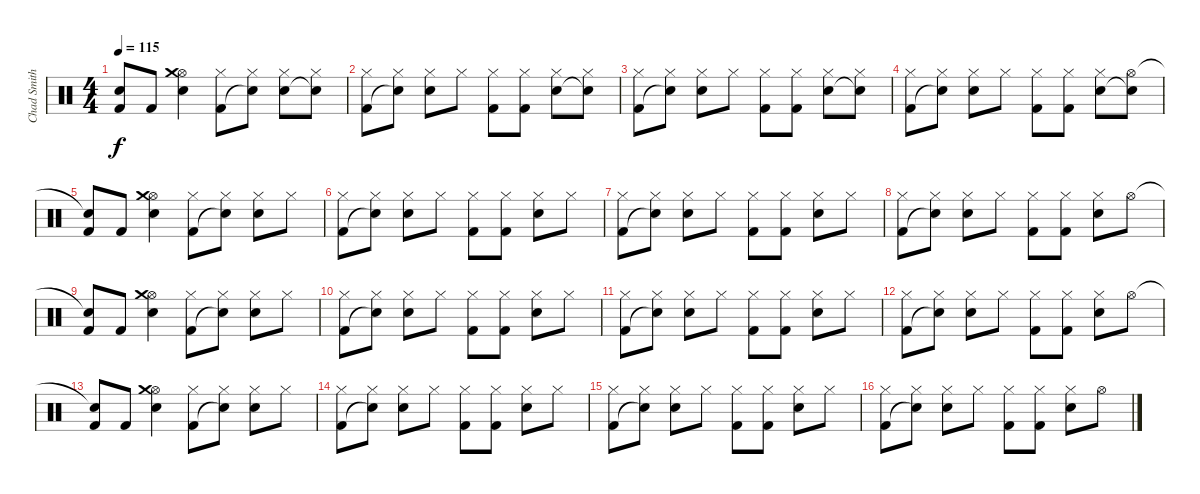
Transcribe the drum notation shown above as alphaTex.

\track ("Chad Smith" "Chad Smith") {instrument percussion}
\staff {score}
\articulation defaults
\ts (4 4)
\tempo 115
\clef neutral
\ks c
("Snare (hit)"{t} "Kick (hit) 2").8{dy f} "Kick (hit) 2".8 ("Hi-Hat (open)" "Crash medium (hit)" "Electric Snare (hit)").4 ("Hi-Hat (closed)" "Kick (hit) 2").8 ("Hi-Hat (closed)" "Snare (hit)"{t}).8 ("Hi-Hat (closed)" "Electric Snare (hit)").8 ("Hi-Hat (closed)" "Snare (hit)"{t}).8 |
("Hi-Hat (closed)" "Kick (hit) 2").8 ("Hi-Hat (closed)" "Snare (hit)"{t}).8 ("Hi-Hat (closed)" "Electric Snare (hit)").8 "Hi-Hat (closed)".8 ("Hi-Hat (closed)" "Kick (hit) 2").8 ("Hi-Hat (closed)" "Kick (hit) 2").8 ("Hi-Hat (closed)" "Electric Snare (hit)").8 ("Hi-Hat (closed)" "Snare (hit)"{t}).8 |
("Hi-Hat (closed)" "Kick (hit) 2").8 ("Hi-Hat (closed)" "Snare (hit)"{t}).8 ("Hi-Hat (closed)" "Electric Snare (hit)").8 "Hi-Hat (closed)".8 ("Hi-Hat (closed)" "Kick (hit) 2").8 ("Hi-Hat (closed)" "Kick (hit) 2").8 ("Hi-Hat (closed)" "Electric Snare (hit)").8 ("Hi-Hat (closed)" "Snare (hit)"{t}).8 |
("Hi-Hat (closed)" "Kick (hit) 2").8 ("Hi-Hat (closed)" "Snare (hit)"{t}).8 ("Hi-Hat (closed)" "Electric Snare (hit)").8 "Hi-Hat (closed)".8 ("Hi-Hat (closed)" "Kick (hit) 2").8 ("Hi-Hat (closed)" "Kick (hit) 2").8 ("Hi-Hat (closed)" "Electric Snare (hit)").8 ("Hi-Hat (open)" "Snare (hit)"{t}).8 |
("Snare (hit)"{t} "Kick (hit) 2").8 "Kick (hit) 2".8 ("Hi-Hat (open)" "Crash medium (hit)" "Electric Snare (hit)").4 ("Hi-Hat (closed)" "Kick (hit) 2").8 ("Hi-Hat (closed)" "Snare (hit)"{t}).8 ("Hi-Hat (closed)" "Electric Snare (hit)").8 "Hi-Hat (closed)".8 |
("Hi-Hat (closed)" "Kick (hit) 2").8 ("Hi-Hat (closed)" "Snare (hit)"{t}).8 ("Hi-Hat (closed)" "Electric Snare (hit)").8 "Hi-Hat (closed)".8 ("Hi-Hat (closed)" "Kick (hit) 2").8 ("Hi-Hat (closed)" "Kick (hit) 2").8 ("Hi-Hat (closed)" "Electric Snare (hit)").8 "Hi-Hat (closed)".8 |
("Hi-Hat (closed)" "Kick (hit) 2").8 ("Hi-Hat (closed)" "Snare (hit)"{t}).8 ("Hi-Hat (closed)" "Electric Snare (hit)").8 "Hi-Hat (closed)".8 ("Hi-Hat (closed)" "Kick (hit) 2").8 ("Hi-Hat (closed)" "Kick (hit) 2").8 ("Hi-Hat (closed)" "Electric Snare (hit)").8 "Hi-Hat (closed)".8 |
("Hi-Hat (closed)" "Kick (hit) 2").8 ("Hi-Hat (closed)" "Snare (hit)"{t}).8 ("Hi-Hat (closed)" "Electric Snare (hit)").8 "Hi-Hat (closed)".8 ("Hi-Hat (closed)" "Kick (hit) 2").8 ("Hi-Hat (closed)" "Kick (hit) 2").8 ("Hi-Hat (closed)" "Electric Snare (hit)").8 "Hi-Hat (open)".8 |
("Snare (hit)"{t} "Kick (hit) 2").8 "Kick (hit) 2".8 ("Hi-Hat (open)" "Crash medium (hit)" "Electric Snare (hit)").4 ("Hi-Hat (closed)" "Kick (hit) 2").8 ("Hi-Hat (closed)" "Snare (hit)"{t}).8 ("Hi-Hat (closed)" "Electric Snare (hit)").8 "Hi-Hat (closed)".8 |
("Hi-Hat (closed)" "Kick (hit) 2").8 ("Hi-Hat (closed)" "Snare (hit)"{t}).8 ("Hi-Hat (closed)" "Electric Snare (hit)").8 "Hi-Hat (closed)".8 ("Hi-Hat (closed)" "Kick (hit) 2").8 ("Hi-Hat (closed)" "Kick (hit) 2").8 ("Hi-Hat (closed)" "Electric Snare (hit)").8 "Hi-Hat (closed)".8 |
("Hi-Hat (closed)" "Kick (hit) 2").8 ("Hi-Hat (closed)" "Snare (hit)"{t}).8 ("Hi-Hat (closed)" "Electric Snare (hit)").8 "Hi-Hat (closed)".8 ("Hi-Hat (closed)" "Kick (hit) 2").8 ("Hi-Hat (closed)" "Kick (hit) 2").8 ("Hi-Hat (closed)" "Electric Snare (hit)").8 "Hi-Hat (closed)".8 |
("Hi-Hat (closed)" "Kick (hit) 2").8 ("Hi-Hat (closed)" "Snare (hit)"{t}).8 ("Hi-Hat (closed)" "Electric Snare (hit)").8 "Hi-Hat (closed)".8 ("Hi-Hat (closed)" "Kick (hit) 2").8 ("Hi-Hat (closed)" "Kick (hit) 2").8 ("Hi-Hat (closed)" "Electric Snare (hit)").8 "Hi-Hat (open)".8 |
("Snare (hit)"{t} "Kick (hit) 2").8 "Kick (hit) 2".8 ("Hi-Hat (open)" "Crash medium (hit)" "Electric Snare (hit)").4 ("Hi-Hat (closed)" "Kick (hit) 2").8 ("Hi-Hat (closed)" "Snare (hit)"{t}).8 ("Hi-Hat (closed)" "Electric Snare (hit)").8 "Hi-Hat (closed)".8 |
("Hi-Hat (closed)" "Kick (hit) 2").8 ("Hi-Hat (closed)" "Snare (hit)"{t}).8 ("Hi-Hat (closed)" "Electric Snare (hit)").8 "Hi-Hat (closed)".8 ("Hi-Hat (closed)" "Kick (hit) 2").8 ("Hi-Hat (closed)" "Kick (hit) 2").8 ("Hi-Hat (closed)" "Electric Snare (hit)").8 "Hi-Hat (closed)".8 |
("Hi-Hat (closed)" "Kick (hit) 2").8 ("Hi-Hat (closed)" "Snare (hit)"{t}).8 ("Hi-Hat (closed)" "Electric Snare (hit)").8 "Hi-Hat (closed)".8 ("Hi-Hat (closed)" "Kick (hit) 2").8 ("Hi-Hat (closed)" "Kick (hit) 2").8 ("Hi-Hat (closed)" "Electric Snare (hit)").8 "Hi-Hat (closed)".8 |
("Hi-Hat (closed)" "Kick (hit) 2").8 ("Hi-Hat (closed)" "Snare (hit)"{t}).8 ("Hi-Hat (closed)" "Electric Snare (hit)").8 "Hi-Hat (closed)".8 ("Hi-Hat (closed)" "Kick (hit) 2").8 ("Hi-Hat (closed)" "Kick (hit) 2").8 ("Hi-Hat (closed)" "Electric Snare (hit)").8 "Hi-Hat (open)".8
